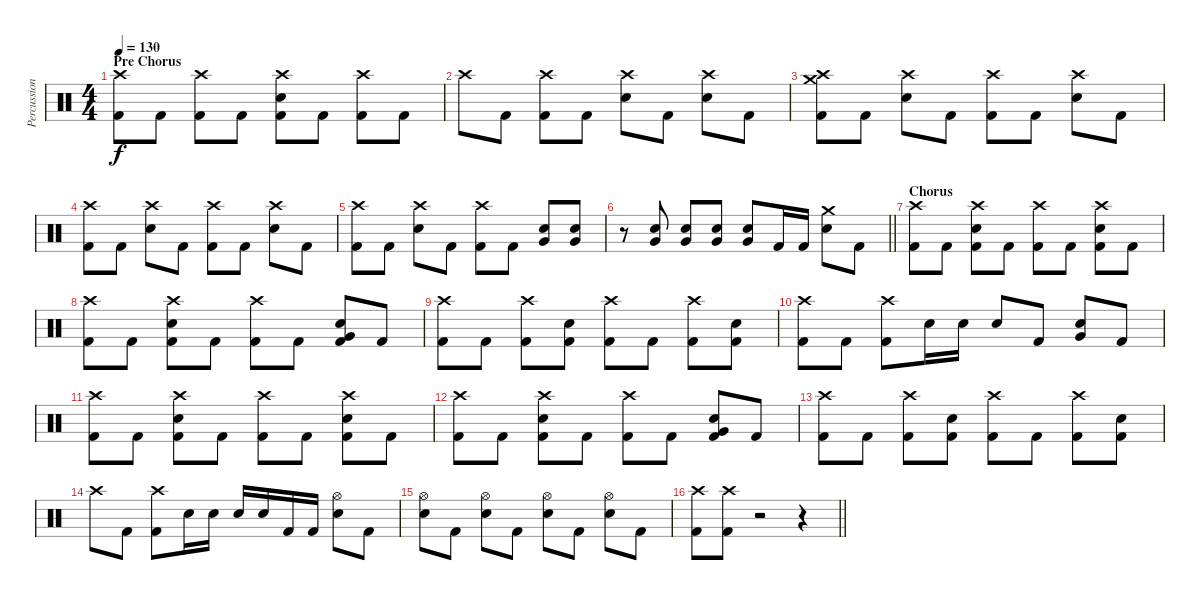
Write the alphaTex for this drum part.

\track ("Percussion" "Percussion") {instrument percussion}
\staff {score}
\articulation defaults
\ts (4 4)
\section ("" "Pre Chorus")
\tempo 130
\clef neutral
\ks c
("Crash high (hit)" "Kick (hit) 2").8{dy f} "Kick (hit) 2".8 ("Crash high (hit)" "Kick (hit) 2").8 "Kick (hit) 2".8 ("Crash high (hit)" "Electric Snare (hit)" "Kick (hit) 2").8 "Kick (hit) 2".8 ("Crash high (hit)" "Kick (hit) 2").8 "Kick (hit) 2".8 |
"Crash high (hit)".8 "Kick (hit) 2".8 ("Crash high (hit)" "Kick (hit) 2").8 "Kick (hit) 2".8 ("Crash high (hit)" "Electric Snare (hit)").8 "Kick (hit) 2".8 ("Crash high (hit)" "Electric Snare (hit)").8 "Kick (hit) 2".8 |
("Crash high (hit)" "Crash medium (hit)" "Kick (hit) 2").8 "Kick (hit) 2".8 ("Crash high (hit)" "Electric Snare (hit)").8 "Kick (hit) 2".8 ("Crash high (hit)" "Kick (hit) 2").8 "Kick (hit) 2".8 ("Crash high (hit)" "Electric Snare (hit)").8 "Kick (hit) 2".8 |
("Crash high (hit)" "Kick (hit) 2").8 "Kick (hit) 2".8 ("Crash high (hit)" "Electric Snare (hit)").8 "Kick (hit) 2".8 ("Crash high (hit)" "Kick (hit) 2").8 "Kick (hit) 2".8 ("Crash high (hit)" "Electric Snare (hit)").8 "Kick (hit) 2".8 |
("Crash high (hit)" "Kick (hit) 2").8 "Kick (hit) 2".8 ("Crash high (hit)" "Electric Snare (hit)").8 "Kick (hit) 2".8 ("Crash high (hit)" "Kick (hit) 2").8 "Kick (hit) 2".8 ("Very Low Tom (hit)" "Electric Snare (hit)").8 ("Very Low Tom (hit)" "Electric Snare (hit)").8 |
\barLineRight lightlight
r.8 ("Very Low Tom (hit)" "Electric Snare (hit)").8 ("Very Low Tom (hit)" "Electric Snare (hit)").8 ("Very Low Tom (hit)" "Electric Snare (hit)").8 ("Very Low Tom (hit)" "Electric Snare (hit)").8 "Kick (hit) 2".16 "Kick (hit) 2".16 ("Crash medium (hit)" "Electric Snare (hit)").8 "Kick (hit) 2".8 |
\section ("" "Chorus")
("Crash high (hit)" "Kick (hit) 2").8 "Kick (hit) 2".8 ("Crash high (hit)" "Electric Snare (hit)" "Kick (hit) 2").8 "Kick (hit) 2".8 ("Crash high (hit)" "Kick (hit) 2").8 "Kick (hit) 2".8 ("Crash high (hit)" "Electric Snare (hit)" "Kick (hit) 2").8 "Kick (hit) 2".8 |
("Crash high (hit)" "Kick (hit) 2").8 "Kick (hit) 2".8 ("Crash high (hit)" "Electric Snare (hit)" "Kick (hit) 2").8 "Kick (hit) 2".8 ("Crash high (hit)" "Kick (hit) 2").8 "Kick (hit) 2".8 ("Very Low Tom (hit)" "Electric Snare (hit)" "Kick (hit) 2").8 "Kick (hit) 2".8 |
("Crash high (hit)" "Kick (hit) 2").8 "Kick (hit) 2".8 ("Crash high (hit)" "Kick (hit) 2").8 ("Electric Snare (hit)" "Kick (hit) 2").8 ("Crash high (hit)" "Kick (hit) 2").8 "Kick (hit) 2".8 ("Crash high (hit)" "Kick (hit) 2").8 ("Electric Snare (hit)" "Kick (hit) 2").8 |
("Crash high (hit)" "Kick (hit) 2").8 "Kick (hit) 2".8 ("Crash high (hit)" "Kick (hit) 2").8 "Electric Snare (hit)".16 "Electric Snare (hit)".16 "Electric Snare (hit)".8 "Kick (hit) 2".8 ("Very Low Tom (hit)" "Electric Snare (hit)").8 "Kick (hit) 2".8 |
("Crash high (hit)" "Kick (hit) 2").8 "Kick (hit) 2".8 ("Crash high (hit)" "Electric Snare (hit)" "Kick (hit) 2").8 "Kick (hit) 2".8 ("Crash high (hit)" "Kick (hit) 2").8 "Kick (hit) 2".8 ("Crash high (hit)" "Electric Snare (hit)" "Kick (hit) 2").8 "Kick (hit) 2".8 |
("Crash high (hit)" "Kick (hit) 2").8 "Kick (hit) 2".8 ("Crash high (hit)" "Electric Snare (hit)" "Kick (hit) 2").8 "Kick (hit) 2".8 ("Crash high (hit)" "Kick (hit) 2").8 "Kick (hit) 2".8 ("Very Low Tom (hit)" "Electric Snare (hit)" "Kick (hit) 2").8 "Kick (hit) 2".8 |
("Crash high (hit)" "Kick (hit) 2").8 "Kick (hit) 2".8 ("Crash high (hit)" "Kick (hit) 2").8 ("Electric Snare (hit)" "Kick (hit) 2").8 ("Crash high (hit)" "Kick (hit) 2").8 "Kick (hit) 2".8 ("Crash high (hit)" "Kick (hit) 2").8 ("Electric Snare (hit)" "Kick (hit) 2").8 |
"Crash high (hit)".8 "Kick (hit) 2".8 ("Crash high (hit)" "Kick (hit) 2").8 "Electric Snare (hit)".16 "Electric Snare (hit)".16 "Electric Snare (hit)".16 "Electric Snare (hit)".16 "Kick (hit) 2".16 "Kick (hit) 2".16 ("Hi-Hat (open)" "Electric Snare (hit)").8 "Kick (hit) 2".8 |
("Hi-Hat (open)" "Electric Snare (hit)").8 "Kick (hit) 2".8 ("Hi-Hat (open)" "Electric Snare (hit)").8 "Kick (hit) 2".8 ("Hi-Hat (open)" "Electric Snare (hit)").8 "Kick (hit) 2".8 ("Hi-Hat (open)" "Electric Snare (hit)").8 "Kick (hit) 2".8 |
\barLineRight lightlight
("Crash high (hit)" "Kick (hit) 2").8 ("Crash high (hit)" "Kick (hit) 2").8 r.2 r.4
